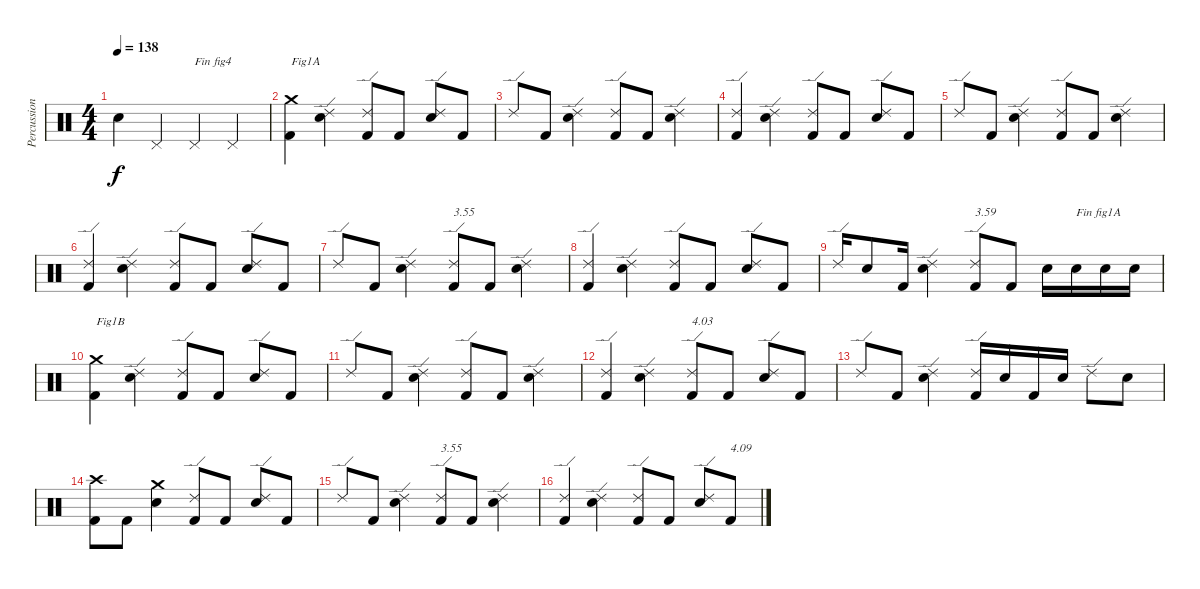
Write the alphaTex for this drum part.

\track ("Percussions" "Percussion") {instrument percussion}
\staff {score}
\articulation defaults
\ts (4 4)
\tempo 138
\clef neutral
\ks c "Electric Snare (hit)".4{dy f} "Pedal Hi-Hat (hit)".4 "Pedal Hi-Hat (hit)".4{txt "Fin fig4"} "Pedal Hi-Hat (hit)".4
|
("Kick (hit) 2" "Crash medium (hit)").4{txt "Fig1A"} ("Electric Snare (hit)" "Ride (edge) 2").4 ("Kick (hit) 2" "Ride (edge) 2").8 "Kick (hit) 2".8 ("Electric Snare (hit)" "Ride (edge) 2").8 "Kick (hit) 2".8 |
"Ride (edge) 2".8 "Kick (hit) 2".8 ("Electric Snare (hit)" "Ride (edge) 2").4 ("Kick (hit) 2" "Ride (edge) 2").8 "Kick (hit) 2".8 ("Electric Snare (hit)" "Ride (edge) 2").4 |
("Kick (hit) 2" "Ride (edge) 2").4 ("Electric Snare (hit)" "Ride (edge) 2").4 ("Kick (hit) 2" "Ride (edge) 2").8 "Kick (hit) 2".8 ("Electric Snare (hit)" "Ride (edge) 2").8 "Kick (hit) 2".8 |
"Ride (edge) 2".8 "Kick (hit) 2".8 ("Electric Snare (hit)" "Ride (edge) 2").4 ("Kick (hit) 2" "Ride (edge) 2").8 "Kick (hit) 2".8 ("Electric Snare (hit)" "Ride (edge) 2").4 |
("Kick (hit) 2" "Ride (edge) 2").4 ("Electric Snare (hit)" "Ride (edge) 2").4 ("Kick (hit) 2" "Ride (edge) 2").8 "Kick (hit) 2".8 ("Electric Snare (hit)" "Ride (edge) 2").8 "Kick (hit) 2".8 |
"Ride (edge) 2".8 "Kick (hit) 2".8 ("Electric Snare (hit)" "Ride (edge) 2").4 ("Kick (hit) 2" "Ride (edge) 2").8{txt "3.55"} "Kick (hit) 2".8 ("Electric Snare (hit)" "Ride (edge) 2").4 |
("Kick (hit) 2" "Ride (edge) 2").4 ("Electric Snare (hit)" "Ride (edge) 2").4 ("Kick (hit) 2" "Ride (edge) 2").8 "Kick (hit) 2".8 ("Electric Snare (hit)" "Ride (edge) 2").8 "Kick (hit) 2".8 |
"Ride (edge) 2".16 "Electric Snare (hit)".8 "Kick (hit) 2".16 ("Electric Snare (hit)" "Ride (edge) 2").4 ("Kick (hit) 2" "Ride (edge) 2").8{txt "3.59"} "Kick (hit) 2".8 "Electric Snare (hit)".16 "Electric Snare (hit)".16{txt "Fin fig1A"} "Electric Snare (hit)".16 "Electric Snare (hit)".16 |
("Kick (hit) 2" "Crash medium (hit)").4{txt "Fig1B"} ("Electric Snare (hit)" "Ride (edge) 2").4 ("Kick (hit) 2" "Ride (edge) 2").8 "Kick (hit) 2".8 ("Electric Snare (hit)" "Ride (edge) 2").8 "Kick (hit) 2".8 |
"Ride (edge) 2".8 "Kick (hit) 2".8 ("Electric Snare (hit)" "Ride (edge) 2").4 ("Kick (hit) 2" "Ride (edge) 2").8 "Kick (hit) 2".8 ("Electric Snare (hit)" "Ride (edge) 2").4 |
("Kick (hit) 2" "Ride (edge) 2").4 ("Electric Snare (hit)" "Ride (edge) 2").4 ("Kick (hit) 2" "Ride (edge) 2").8{txt "4.03"} "Kick (hit) 2".8 ("Electric Snare (hit)" "Ride (edge) 2").8 "Kick (hit) 2".8 |
"Ride (edge) 2".8 "Kick (hit) 2".8 ("Electric Snare (hit)" "Ride (edge) 2").4 ("Kick (hit) 2" "Ride (edge) 2").16 "Electric Snare (hit)".16 "Kick (hit) 2".16 "Electric Snare (hit)".16 "Ride (edge) 2".8 "Electric Snare (hit)".8 |
("Kick (hit) 2" "Crash high (hit)").8 "Kick (hit) 2".8 ("Electric Snare (hit)" "Crash medium (hit)").4 ("Kick (hit) 2" "Ride (edge) 2").8 "Kick (hit) 2".8 ("Electric Snare (hit)" "Ride (edge) 2").8 "Kick (hit) 2".8 |
"Ride (edge) 2".8 "Kick (hit) 2".8 ("Electric Snare (hit)" "Ride (edge) 2").4 ("Kick (hit) 2" "Ride (edge) 2").8{txt "3.55"} "Kick (hit) 2".8 ("Electric Snare (hit)" "Ride (edge) 2").4 |
("Kick (hit) 2" "Ride (edge) 2").4 ("Electric Snare (hit)" "Ride (edge) 2").4 ("Kick (hit) 2" "Ride (edge) 2").8 "Kick (hit) 2".8 ("Electric Snare (hit)" "Ride (edge) 2").8 "Kick (hit) 2".8{txt "4.09"}
